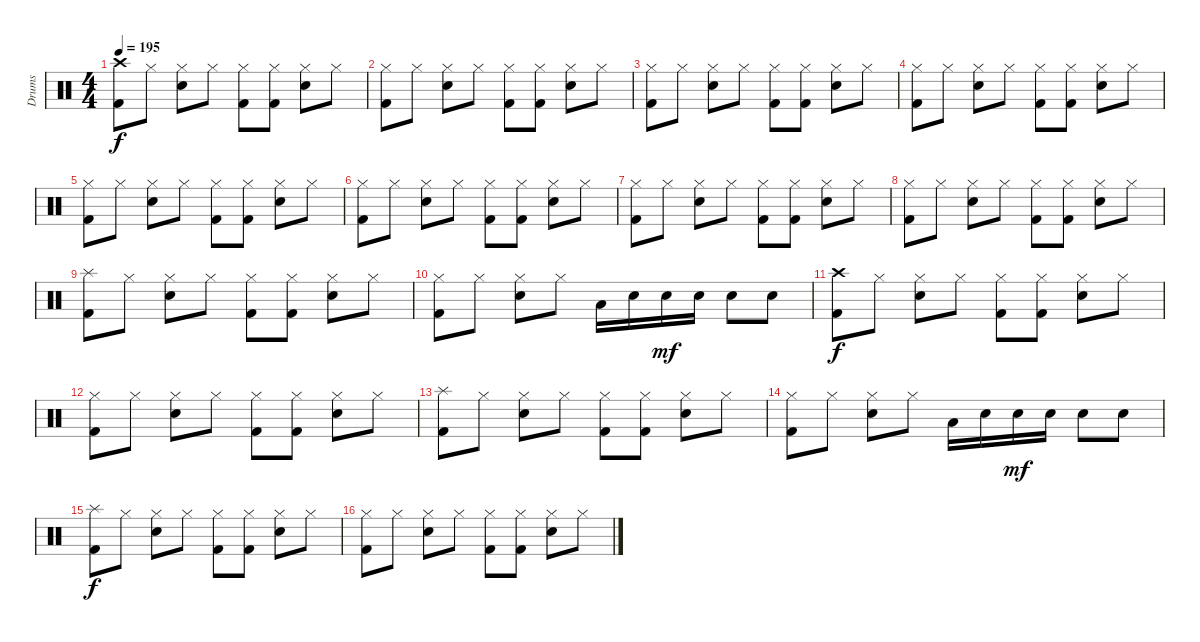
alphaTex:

\track ("Drums" "Drums") {instrument percussion}
\staff {score}
\articulation defaults
\ts (4 4)
\tempo 195
\clef neutral
\ks c
("Crash high (hit)" "Kick (hit) 2").8{dy f} "Hi-Hat (closed)".8 ("Hi-Hat (closed)" "Snare (hit) 2").8 "Hi-Hat (closed)".8 ("Hi-Hat (closed)" "Kick (hit) 2").8 ("Hi-Hat (closed)" "Kick (hit) 2").8 ("Hi-Hat (closed)" "Snare (hit) 2").8 "Hi-Hat (closed)".8 |
("Hi-Hat (closed)" "Kick (hit) 2").8 "Hi-Hat (closed)".8 ("Hi-Hat (closed)" "Snare (hit) 2").8 "Hi-Hat (closed)".8 ("Hi-Hat (closed)" "Kick (hit) 2").8 ("Hi-Hat (closed)" "Kick (hit) 2").8 ("Hi-Hat (closed)" "Snare (hit) 2").8 "Hi-Hat (closed)".8 |
("Hi-Hat (closed)" "Kick (hit) 2").8 "Hi-Hat (closed)".8 ("Hi-Hat (closed)" "Snare (hit) 2").8 "Hi-Hat (closed)".8 ("Hi-Hat (closed)" "Kick (hit) 2").8 ("Hi-Hat (closed)" "Kick (hit) 2").8 ("Hi-Hat (closed)" "Snare (hit) 2").8 "Hi-Hat (closed)".8 |
("Hi-Hat (closed)" "Kick (hit) 2").8 "Hi-Hat (closed)".8 ("Hi-Hat (closed)" "Snare (hit) 2").8 "Hi-Hat (closed)".8 ("Hi-Hat (closed)" "Kick (hit) 2").8 ("Hi-Hat (closed)" "Kick (hit) 2").8 ("Hi-Hat (closed)" "Snare (hit) 2").8 "Hi-Hat (closed)".8 |
("Hi-Hat (closed)" "Kick (hit) 2").8 "Hi-Hat (closed)".8 ("Hi-Hat (closed)" "Snare (hit) 2").8 "Hi-Hat (closed)".8 ("Hi-Hat (closed)" "Kick (hit) 2").8 ("Hi-Hat (closed)" "Kick (hit) 2").8 ("Hi-Hat (closed)" "Snare (hit) 2").8 "Hi-Hat (closed)".8 |
("Hi-Hat (closed)" "Kick (hit) 2").8 "Hi-Hat (closed)".8 ("Hi-Hat (closed)" "Snare (hit) 2").8 "Hi-Hat (closed)".8 ("Hi-Hat (closed)" "Kick (hit) 2").8 ("Hi-Hat (closed)" "Kick (hit) 2").8 ("Hi-Hat (closed)" "Snare (hit) 2").8 "Hi-Hat (closed)".8 |
("Hi-Hat (closed)" "Kick (hit) 2").8 "Hi-Hat (closed)".8 ("Hi-Hat (closed)" "Snare (hit) 2").8 "Hi-Hat (closed)".8 ("Hi-Hat (closed)" "Kick (hit) 2").8 ("Hi-Hat (closed)" "Kick (hit) 2").8 ("Hi-Hat (closed)" "Snare (hit) 2").8 "Hi-Hat (closed)".8 |
("Hi-Hat (closed)" "Kick (hit) 2").8 "Hi-Hat (closed)".8 ("Hi-Hat (closed)" "Snare (hit) 2").8 "Hi-Hat (closed)".8 ("Hi-Hat (closed)" "Kick (hit) 2").8 ("Hi-Hat (closed)" "Kick (hit) 2").8 ("Hi-Hat (closed)" "Snare (hit) 2").8 "Hi-Hat (closed)".8 |
("Splash (hit)" "Kick (hit) 2").8 "Hi-Hat (closed)".8 ("Hi-Hat (closed)" "Snare (hit) 2").8 "Hi-Hat (closed)".8 ("Hi-Hat (closed)" "Kick (hit) 2").8 ("Hi-Hat (closed)" "Kick (hit) 2").8 ("Hi-Hat (closed)" "Snare (hit) 2").8 "Hi-Hat (closed)".8 |
("Hi-Hat (closed)" "Kick (hit) 2").8 "Hi-Hat (closed)".8 ("Hi-Hat (closed)" "Snare (hit) 2").8 "Hi-Hat (closed)".8 "Low Tom (hit)".16 "Snare (hit) 2".16 "Snare (hit) 2".16{dy mf} "Snare (hit) 2".16 "Snare (hit) 2".8 "Snare (hit) 2".8 |
("Crash high (hit)" "Kick (hit) 2").8{dy f} "Hi-Hat (closed)".8 ("Hi-Hat (closed)" "Snare (hit) 2").8 "Hi-Hat (closed)".8 ("Hi-Hat (closed)" "Kick (hit) 2").8 ("Hi-Hat (closed)" "Kick (hit) 2").8 ("Hi-Hat (closed)" "Snare (hit) 2").8 "Hi-Hat (closed)".8 |
("Hi-Hat (closed)" "Kick (hit) 2").8 "Hi-Hat (closed)".8 ("Hi-Hat (closed)" "Snare (hit) 2").8 "Hi-Hat (closed)".8 ("Hi-Hat (closed)" "Kick (hit) 2").8 ("Hi-Hat (closed)" "Kick (hit) 2").8 ("Hi-Hat (closed)" "Snare (hit) 2").8 "Hi-Hat (closed)".8 |
("Splash (hit)" "Kick (hit) 2").8 "Hi-Hat (closed)".8 ("Hi-Hat (closed)" "Snare (hit) 2").8 "Hi-Hat (closed)".8 ("Hi-Hat (closed)" "Kick (hit) 2").8 ("Hi-Hat (closed)" "Kick (hit) 2").8 ("Hi-Hat (closed)" "Snare (hit) 2").8 "Hi-Hat (closed)".8 |
("Hi-Hat (closed)" "Kick (hit) 2").8 "Hi-Hat (closed)".8 ("Hi-Hat (closed)" "Snare (hit) 2").8 "Hi-Hat (closed)".8 "Low Tom (hit)".16 "Snare (hit) 2".16 "Snare (hit) 2".16{dy mf} "Snare (hit) 2".16 "Snare (hit) 2".8 "Snare (hit) 2".8 |
("Splash (hit)" "Kick (hit) 2").8{dy f} "Hi-Hat (closed)".8 ("Hi-Hat (closed)" "Snare (hit) 2").8 "Hi-Hat (closed)".8 ("Hi-Hat (closed)" "Kick (hit) 2").8 ("Hi-Hat (closed)" "Kick (hit) 2").8 ("Hi-Hat (closed)" "Snare (hit) 2").8 "Hi-Hat (closed)".8 |
("Hi-Hat (closed)" "Kick (hit) 2").8 "Hi-Hat (closed)".8 ("Hi-Hat (closed)" "Snare (hit) 2").8 "Hi-Hat (closed)".8 ("Hi-Hat (closed)" "Kick (hit) 2").8 ("Hi-Hat (closed)" "Kick (hit) 2").8 ("Hi-Hat (closed)" "Snare (hit) 2").8 "Hi-Hat (closed)".8
